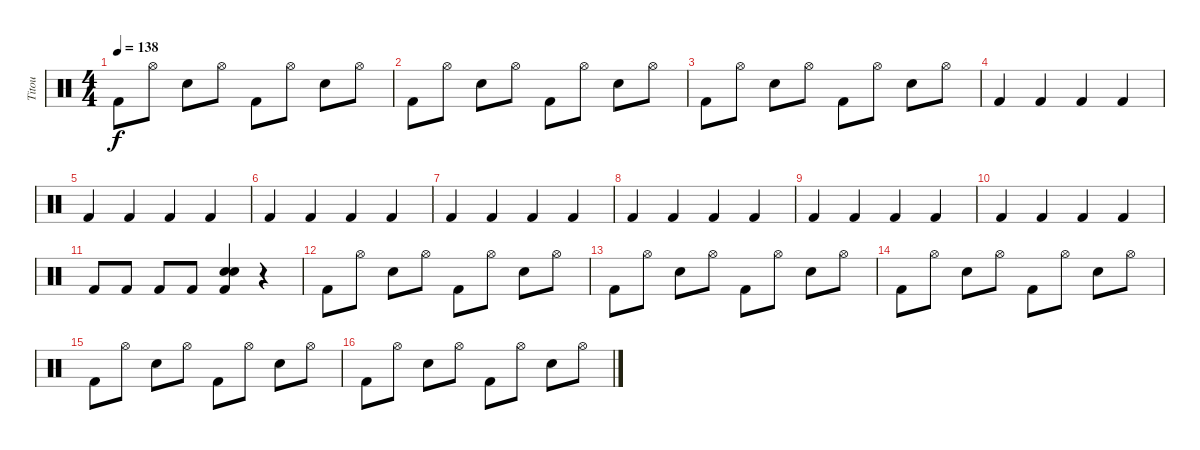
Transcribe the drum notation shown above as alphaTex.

\track ("Titou" "Titou") {instrument percussion}
\staff {score}
\articulation defaults
\ts (4 4)
\tempo 138
\clef neutral
\ks c "Kick (hit) 2".8{dy f} "Hi-Hat (open)".8 "Electric Snare (hit)".8 "Hi-Hat (open)".8 "Kick (hit) 2".8 "Hi-Hat (open)".8 "Electric Snare (hit)".8 "Hi-Hat (open)".8
|
"Kick (hit) 2".8 "Hi-Hat (open)".8 "Electric Snare (hit)".8 "Hi-Hat (open)".8 "Kick (hit) 2".8 "Hi-Hat (open)".8 "Electric Snare (hit)".8 "Hi-Hat (open)".8 |
"Kick (hit) 2".8 "Hi-Hat (open)".8 "Electric Snare (hit)".8 "Hi-Hat (open)".8 "Kick (hit) 2".8 "Hi-Hat (open)".8 "Electric Snare (hit)".8 "Hi-Hat (open)".8 |
"Kick (hit) 2".4 "Kick (hit) 2".4 "Kick (hit) 2".4 "Kick (hit) 2".4 |
"Kick (hit) 2".4 "Kick (hit) 2".4 "Kick (hit) 2".4 "Kick (hit) 2".4 |
"Kick (hit) 2".4 "Kick (hit) 2".4 "Kick (hit) 2".4 "Kick (hit) 2".4 |
"Kick (hit) 2".4 "Kick (hit) 2".4 "Kick (hit) 2".4 "Kick (hit) 2".4 |
"Kick (hit) 2".4 "Kick (hit) 2".4 "Kick (hit) 2".4 "Kick (hit) 2".4 |
"Kick (hit) 2".4 "Kick (hit) 2".4 "Kick (hit) 2".4 "Kick (hit) 2".4 |
"Kick (hit) 2".4 "Kick (hit) 2".4 "Kick (hit) 2".4 "Kick (hit) 2".4 |
"Kick (hit) 2".8 "Kick (hit) 2".8 "Kick (hit) 2".8 "Kick (hit) 2".8 ("Electric Snare (hit)" "Kick (hit) 2" "Electric Snare (hit)").4 r.4 |
"Kick (hit) 2".8 "Hi-Hat (open)".8 "Electric Snare (hit)".8 "Hi-Hat (open)".8 "Kick (hit) 2".8 "Hi-Hat (open)".8 "Electric Snare (hit)".8 "Hi-Hat (open)".8 |
"Kick (hit) 2".8 "Hi-Hat (open)".8 "Electric Snare (hit)".8 "Hi-Hat (open)".8 "Kick (hit) 2".8 "Hi-Hat (open)".8 "Electric Snare (hit)".8 "Hi-Hat (open)".8 |
"Kick (hit) 2".8 "Hi-Hat (open)".8 "Electric Snare (hit)".8 "Hi-Hat (open)".8 "Kick (hit) 2".8 "Hi-Hat (open)".8 "Electric Snare (hit)".8 "Hi-Hat (open)".8 |
"Kick (hit) 2".8 "Hi-Hat (open)".8 "Electric Snare (hit)".8 "Hi-Hat (open)".8 "Kick (hit) 2".8 "Hi-Hat (open)".8 "Electric Snare (hit)".8 "Hi-Hat (open)".8 |
"Kick (hit) 2".8 "Hi-Hat (open)".8 "Electric Snare (hit)".8 "Hi-Hat (open)".8 "Kick (hit) 2".8 "Hi-Hat (open)".8 "Electric Snare (hit)".8 "Hi-Hat (open)".8
